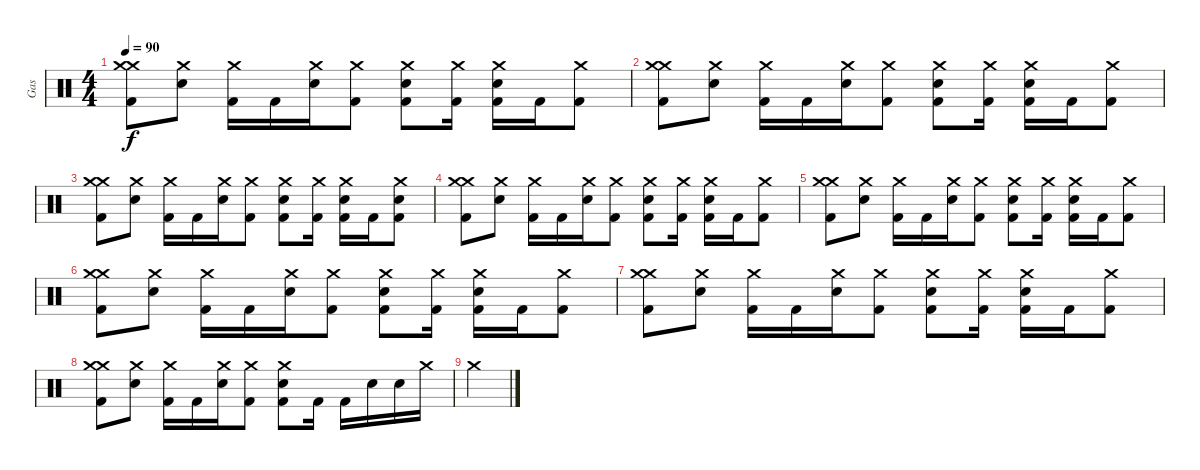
\track ("Gas" "Gas") {instrument percussion}
\staff {score}
\articulation defaults
\ts (4 4)
\tempo 90
\clef neutral
\ks c
("Crash medium (hit)" "Crash medium (hit)" "Kick (hit) 2").8{dy f} ("Snare (hit) 2" "Crash medium (hit)").8 ("Crash medium (hit)" "Kick (hit) 2").16 "Kick (hit) 2".16 ("Snare (hit) 2" "Crash medium (hit)").16 ("Crash medium (hit)" "Kick (hit) 2").8 ("Snare (hit) 2" "Crash medium (hit)" "Kick (hit) 2").8 ("Crash medium (hit)" "Kick (hit) 2").16 ("Snare (hit) 2" "Crash medium (hit)" "Kick (hit) 2").16 "Kick (hit) 2".16 ("Crash medium (hit)" "Kick (hit) 2").8 |
("Crash medium (hit)" "Crash medium (hit)" "Kick (hit) 2").8 ("Snare (hit) 2" "Crash medium (hit)").8 ("Crash medium (hit)" "Kick (hit) 2").16 "Kick (hit) 2".16 ("Snare (hit) 2" "Crash medium (hit)").16 ("Crash medium (hit)" "Kick (hit) 2").8 ("Snare (hit) 2" "Crash medium (hit)" "Kick (hit) 2").8 ("Crash medium (hit)" "Kick (hit) 2").16 ("Snare (hit) 2" "Crash medium (hit)" "Kick (hit) 2").16 "Kick (hit) 2".16 ("Crash medium (hit)" "Kick (hit) 2").8 |
("Crash medium (hit)" "Crash medium (hit)" "Kick (hit) 2").8 ("Snare (hit) 2" "Crash medium (hit)").8 ("Crash medium (hit)" "Kick (hit) 2").16 "Kick (hit) 2".16 ("Snare (hit) 2" "Crash medium (hit)").16 ("Crash medium (hit)" "Kick (hit) 2").8 ("Snare (hit) 2" "Crash medium (hit)" "Kick (hit) 2").8 ("Crash medium (hit)" "Kick (hit) 2").16 ("Snare (hit) 2" "Crash medium (hit)" "Kick (hit) 2").16 "Kick (hit) 2".16 ("Snare (hit) 2" "Crash medium (hit)" "Kick (hit) 2").8 |
("Crash medium (hit)" "Crash medium (hit)" "Kick (hit) 2").8 ("Snare (hit) 2" "Crash medium (hit)").8 ("Crash medium (hit)" "Kick (hit) 2").16 "Kick (hit) 2".16 ("Snare (hit) 2" "Crash medium (hit)").16 ("Crash medium (hit)" "Kick (hit) 2").8 ("Snare (hit) 2" "Crash medium (hit)" "Kick (hit) 2").8 ("Crash medium (hit)" "Kick (hit) 2").16 ("Snare (hit) 2" "Crash medium (hit)" "Kick (hit) 2").16 "Kick (hit) 2".16 ("Crash medium (hit)" "Kick (hit) 2").8 |
("Crash medium (hit)" "Crash medium (hit)" "Kick (hit) 2").8 ("Snare (hit) 2" "Crash medium (hit)").8 ("Crash medium (hit)" "Kick (hit) 2").16 "Kick (hit) 2".16 ("Snare (hit) 2" "Crash medium (hit)").16 ("Crash medium (hit)" "Kick (hit) 2").8 ("Snare (hit) 2" "Crash medium (hit)" "Kick (hit) 2").8 ("Crash medium (hit)" "Kick (hit) 2").16 ("Snare (hit) 2" "Crash medium (hit)" "Kick (hit) 2").16 "Kick (hit) 2".16 ("Crash medium (hit)" "Kick (hit) 2").8 |
("Crash medium (hit)" "Crash medium (hit)" "Kick (hit) 2").8 ("Snare (hit) 2" "Crash medium (hit)").8 ("Crash medium (hit)" "Kick (hit) 2").16 "Kick (hit) 2".16 ("Snare (hit) 2" "Crash medium (hit)").16 ("Crash medium (hit)" "Kick (hit) 2").8 ("Snare (hit) 2" "Crash medium (hit)" "Kick (hit) 2").8 ("Crash medium (hit)" "Kick (hit) 2").16 ("Snare (hit) 2" "Crash medium (hit)" "Kick (hit) 2").16 "Kick (hit) 2".16 ("Crash medium (hit)" "Kick (hit) 2").8 |
("Crash medium (hit)" "Crash medium (hit)" "Kick (hit) 2").8 ("Snare (hit) 2" "Crash medium (hit)").8 ("Crash medium (hit)" "Kick (hit) 2").16 "Kick (hit) 2".16 ("Snare (hit) 2" "Crash medium (hit)").16 ("Crash medium (hit)" "Kick (hit) 2").8 ("Snare (hit) 2" "Crash medium (hit)" "Kick (hit) 2").8 ("Crash medium (hit)" "Kick (hit) 2").16 ("Snare (hit) 2" "Crash medium (hit)" "Kick (hit) 2").16 "Kick (hit) 2".16 ("Crash medium (hit)" "Kick (hit) 2").8 |
("Crash medium (hit)" "Crash medium (hit)" "Kick (hit) 2").8 ("Snare (hit) 2" "Crash medium (hit)").8 ("Crash medium (hit)" "Kick (hit) 2").16 "Kick (hit) 2".16 ("Snare (hit) 2" "Crash medium (hit)").16 ("Crash medium (hit)" "Kick (hit) 2").8 ("Snare (hit) 2" "Crash medium (hit)" "Kick (hit) 2").8 "Kick (hit) 2".16 "Kick (hit) 2".16 "Snare (hit) 2".16 "Snare (hit) 2".16 "Crash medium (hit)".16 |
"Crash medium (hit)".4
